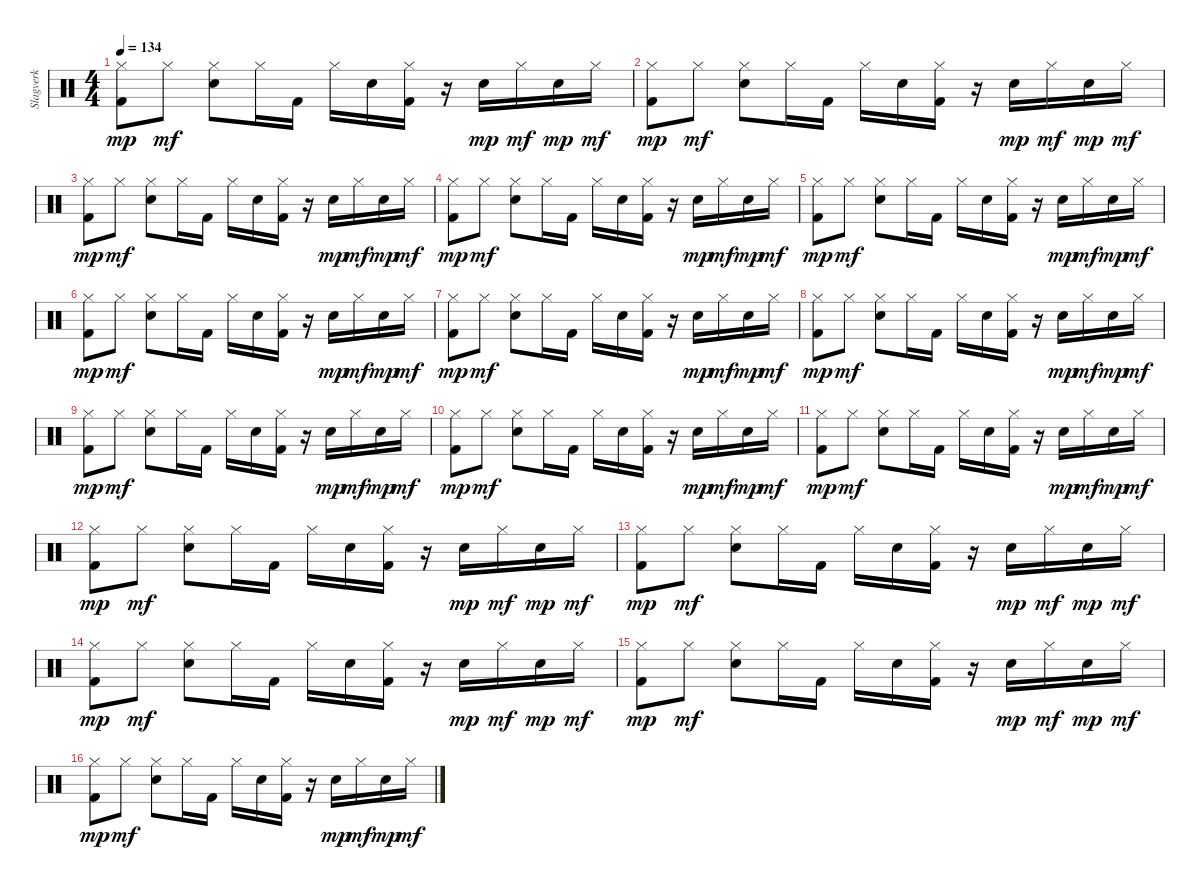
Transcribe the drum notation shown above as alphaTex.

\track ("Slagverk" "Slagverk") {instrument percussion}
\staff {score}
\articulation defaults
\ts (4 4)
\tempo 134
\clef neutral
\ks c
("Hi-Hat (closed)" "Kick (hit) 2").8{dy mp} "Hi-Hat (closed)".8{dy mf} ("Hi-Hat (closed)" "Electric Snare (hit)").8 "Hi-Hat (closed)".16 "Kick (hit) 2".16 "Hi-Hat (closed)".16 "Electric Snare (hit)".16 ("Hi-Hat (closed)" "Kick (hit) 2").16 r.16 "Electric Snare (hit)".16{dy mp} "Hi-Hat (closed)".16{dy mf} "Electric Snare (hit)".16{dy mp} "Hi-Hat (closed)".16{dy mf} |
("Hi-Hat (closed)" "Kick (hit) 2").8{dy mp} "Hi-Hat (closed)".8{dy mf} ("Hi-Hat (closed)" "Electric Snare (hit)").8 "Hi-Hat (closed)".16 "Kick (hit) 2".16 "Hi-Hat (closed)".16 "Electric Snare (hit)".16 ("Hi-Hat (closed)" "Kick (hit) 2").16 r.16 "Electric Snare (hit)".16{dy mp} "Hi-Hat (closed)".16{dy mf} "Electric Snare (hit)".16{dy mp} "Hi-Hat (closed)".16{dy mf} |
("Hi-Hat (closed)" "Kick (hit) 2").8{dy mp} "Hi-Hat (closed)".8{dy mf} ("Hi-Hat (closed)" "Electric Snare (hit)").8 "Hi-Hat (closed)".16 "Kick (hit) 2".16 "Hi-Hat (closed)".16 "Electric Snare (hit)".16 ("Hi-Hat (closed)" "Kick (hit) 2").16 r.16 "Electric Snare (hit)".16{dy mp} "Hi-Hat (closed)".16{dy mf} "Electric Snare (hit)".16{dy mp} "Hi-Hat (closed)".16{dy mf} |
("Hi-Hat (closed)" "Kick (hit) 2").8{dy mp} "Hi-Hat (closed)".8{dy mf} ("Hi-Hat (closed)" "Electric Snare (hit)").8 "Hi-Hat (closed)".16 "Kick (hit) 2".16 "Hi-Hat (closed)".16 "Electric Snare (hit)".16 ("Hi-Hat (closed)" "Kick (hit) 2").16 r.16 "Electric Snare (hit)".16{dy mp} "Hi-Hat (closed)".16{dy mf} "Electric Snare (hit)".16{dy mp} "Hi-Hat (closed)".16{dy mf} |
("Hi-Hat (closed)" "Kick (hit) 2").8{dy mp} "Hi-Hat (closed)".8{dy mf} ("Hi-Hat (closed)" "Electric Snare (hit)").8 "Hi-Hat (closed)".16 "Kick (hit) 2".16 "Hi-Hat (closed)".16 "Electric Snare (hit)".16 ("Hi-Hat (closed)" "Kick (hit) 2").16 r.16 "Electric Snare (hit)".16{dy mp} "Hi-Hat (closed)".16{dy mf} "Electric Snare (hit)".16{dy mp} "Hi-Hat (closed)".16{dy mf} |
("Hi-Hat (closed)" "Kick (hit) 2").8{dy mp} "Hi-Hat (closed)".8{dy mf} ("Hi-Hat (closed)" "Electric Snare (hit)").8 "Hi-Hat (closed)".16 "Kick (hit) 2".16 "Hi-Hat (closed)".16 "Electric Snare (hit)".16 ("Hi-Hat (closed)" "Kick (hit) 2").16 r.16 "Electric Snare (hit)".16{dy mp} "Hi-Hat (closed)".16{dy mf} "Electric Snare (hit)".16{dy mp} "Hi-Hat (closed)".16{dy mf} |
("Hi-Hat (closed)" "Kick (hit) 2").8{dy mp} "Hi-Hat (closed)".8{dy mf} ("Hi-Hat (closed)" "Electric Snare (hit)").8 "Hi-Hat (closed)".16 "Kick (hit) 2".16 "Hi-Hat (closed)".16 "Electric Snare (hit)".16 ("Hi-Hat (closed)" "Kick (hit) 2").16 r.16 "Electric Snare (hit)".16{dy mp} "Hi-Hat (closed)".16{dy mf} "Electric Snare (hit)".16{dy mp} "Hi-Hat (closed)".16{dy mf} |
("Hi-Hat (closed)" "Kick (hit) 2").8{dy mp} "Hi-Hat (closed)".8{dy mf} ("Hi-Hat (closed)" "Electric Snare (hit)").8 "Hi-Hat (closed)".16 "Kick (hit) 2".16 "Hi-Hat (closed)".16 "Electric Snare (hit)".16 ("Hi-Hat (closed)" "Kick (hit) 2").16 r.16 "Electric Snare (hit)".16{dy mp} "Hi-Hat (closed)".16{dy mf} "Electric Snare (hit)".16{dy mp} "Hi-Hat (closed)".16{dy mf} |
("Hi-Hat (closed)" "Kick (hit) 2").8{dy mp} "Hi-Hat (closed)".8{dy mf} ("Hi-Hat (closed)" "Electric Snare (hit)").8 "Hi-Hat (closed)".16 "Kick (hit) 2".16 "Hi-Hat (closed)".16 "Electric Snare (hit)".16 ("Hi-Hat (closed)" "Kick (hit) 2").16 r.16 "Electric Snare (hit)".16{dy mp} "Hi-Hat (closed)".16{dy mf} "Electric Snare (hit)".16{dy mp} "Hi-Hat (closed)".16{dy mf} |
("Hi-Hat (closed)" "Kick (hit) 2").8{dy mp} "Hi-Hat (closed)".8{dy mf} ("Hi-Hat (closed)" "Electric Snare (hit)").8 "Hi-Hat (closed)".16 "Kick (hit) 2".16 "Hi-Hat (closed)".16 "Electric Snare (hit)".16 ("Hi-Hat (closed)" "Kick (hit) 2").16 r.16 "Electric Snare (hit)".16{dy mp} "Hi-Hat (closed)".16{dy mf} "Electric Snare (hit)".16{dy mp} "Hi-Hat (closed)".16{dy mf} |
("Hi-Hat (closed)" "Kick (hit) 2").8{dy mp} "Hi-Hat (closed)".8{dy mf} ("Hi-Hat (closed)" "Electric Snare (hit)").8 "Hi-Hat (closed)".16 "Kick (hit) 2".16 "Hi-Hat (closed)".16 "Electric Snare (hit)".16 ("Hi-Hat (closed)" "Kick (hit) 2").16 r.16 "Electric Snare (hit)".16{dy mp} "Hi-Hat (closed)".16{dy mf} "Electric Snare (hit)".16{dy mp} "Hi-Hat (closed)".16{dy mf} |
("Hi-Hat (closed)" "Kick (hit) 2").8{dy mp} "Hi-Hat (closed)".8{dy mf} ("Hi-Hat (closed)" "Electric Snare (hit)").8 "Hi-Hat (closed)".16 "Kick (hit) 2".16 "Hi-Hat (closed)".16 "Electric Snare (hit)".16 ("Hi-Hat (closed)" "Kick (hit) 2").16 r.16 "Electric Snare (hit)".16{dy mp} "Hi-Hat (closed)".16{dy mf} "Electric Snare (hit)".16{dy mp} "Hi-Hat (closed)".16{dy mf} |
("Hi-Hat (closed)" "Kick (hit) 2").8{dy mp} "Hi-Hat (closed)".8{dy mf} ("Hi-Hat (closed)" "Electric Snare (hit)").8 "Hi-Hat (closed)".16 "Kick (hit) 2".16 "Hi-Hat (closed)".16 "Electric Snare (hit)".16 ("Hi-Hat (closed)" "Kick (hit) 2").16 r.16 "Electric Snare (hit)".16{dy mp} "Hi-Hat (closed)".16{dy mf} "Electric Snare (hit)".16{dy mp} "Hi-Hat (closed)".16{dy mf} |
("Hi-Hat (closed)" "Kick (hit) 2").8{dy mp} "Hi-Hat (closed)".8{dy mf} ("Hi-Hat (closed)" "Electric Snare (hit)").8 "Hi-Hat (closed)".16 "Kick (hit) 2".16 "Hi-Hat (closed)".16 "Electric Snare (hit)".16 ("Hi-Hat (closed)" "Kick (hit) 2").16 r.16 "Electric Snare (hit)".16{dy mp} "Hi-Hat (closed)".16{dy mf} "Electric Snare (hit)".16{dy mp} "Hi-Hat (closed)".16{dy mf} |
("Hi-Hat (closed)" "Kick (hit) 2").8{dy mp} "Hi-Hat (closed)".8{dy mf} ("Hi-Hat (closed)" "Electric Snare (hit)").8 "Hi-Hat (closed)".16 "Kick (hit) 2".16 "Hi-Hat (closed)".16 "Electric Snare (hit)".16 ("Hi-Hat (closed)" "Kick (hit) 2").16 r.16 "Electric Snare (hit)".16{dy mp} "Hi-Hat (closed)".16{dy mf} "Electric Snare (hit)".16{dy mp} "Hi-Hat (closed)".16{dy mf} |
("Hi-Hat (closed)" "Kick (hit) 2").8{dy mp} "Hi-Hat (closed)".8{dy mf} ("Hi-Hat (closed)" "Electric Snare (hit)").8 "Hi-Hat (closed)".16 "Kick (hit) 2".16 "Hi-Hat (closed)".16 "Electric Snare (hit)".16 ("Hi-Hat (closed)" "Kick (hit) 2").16 r.16 "Electric Snare (hit)".16{dy mp} "Hi-Hat (closed)".16{dy mf} "Electric Snare (hit)".16{dy mp} "Hi-Hat (closed)".16{dy mf}
